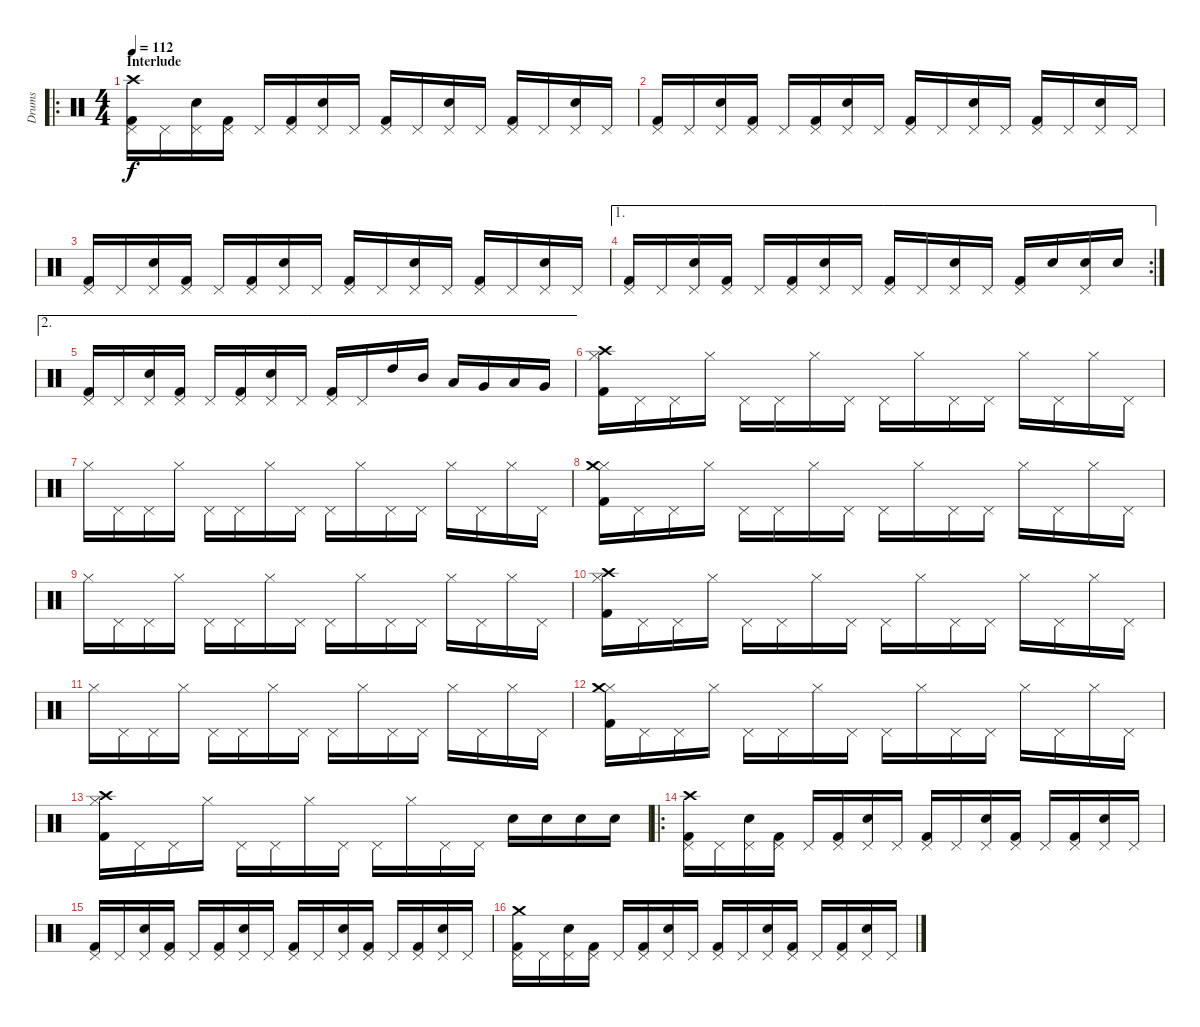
\track ("Drums" "Drums") {instrument percussion}
\staff {score}
\articulation defaults
\ro
\ts (4 4)
\section ("" "Interlude")
\tempo 112
\clef neutral
\ks c
("Kick (hit) 2" "Pedal Hi-Hat (hit)" "Crash high (hit)").16{dy f} "Pedal Hi-Hat (hit)".16 ("Snare (hit) 2" "Pedal Hi-Hat (hit)").16 ("Kick (hit) 2" "Pedal Hi-Hat (hit)").16 "Pedal Hi-Hat (hit)".16 ("Kick (hit) 2" "Pedal Hi-Hat (hit)").16 ("Snare (hit) 2" "Pedal Hi-Hat (hit)").16 "Pedal Hi-Hat (hit)".16 ("Kick (hit) 2" "Pedal Hi-Hat (hit)").16 "Pedal Hi-Hat (hit)".16 ("Snare (hit) 2" "Pedal Hi-Hat (hit)").16 "Pedal Hi-Hat (hit)".16 ("Kick (hit) 2" "Pedal Hi-Hat (hit)").16 "Pedal Hi-Hat (hit)".16 ("Snare (hit) 2" "Pedal Hi-Hat (hit)").16 "Pedal Hi-Hat (hit)".16 |
("Kick (hit) 2" "Pedal Hi-Hat (hit)").16 "Pedal Hi-Hat (hit)".16 ("Snare (hit) 2" "Pedal Hi-Hat (hit)").16 ("Kick (hit) 2" "Pedal Hi-Hat (hit)").16 "Pedal Hi-Hat (hit)".16 ("Kick (hit) 2" "Pedal Hi-Hat (hit)").16 ("Snare (hit) 2" "Pedal Hi-Hat (hit)").16 "Pedal Hi-Hat (hit)".16 ("Kick (hit) 2" "Pedal Hi-Hat (hit)").16 "Pedal Hi-Hat (hit)".16 ("Snare (hit) 2" "Pedal Hi-Hat (hit)").16 "Pedal Hi-Hat (hit)".16 ("Kick (hit) 2" "Pedal Hi-Hat (hit)").16 "Pedal Hi-Hat (hit)".16 ("Snare (hit) 2" "Pedal Hi-Hat (hit)").16 "Pedal Hi-Hat (hit)".16 |
("Kick (hit) 2" "Pedal Hi-Hat (hit)").16 "Pedal Hi-Hat (hit)".16 ("Snare (hit) 2" "Pedal Hi-Hat (hit)").16 ("Kick (hit) 2" "Pedal Hi-Hat (hit)").16 "Pedal Hi-Hat (hit)".16 ("Kick (hit) 2" "Pedal Hi-Hat (hit)").16 ("Snare (hit) 2" "Pedal Hi-Hat (hit)").16 "Pedal Hi-Hat (hit)".16 ("Kick (hit) 2" "Pedal Hi-Hat (hit)").16 "Pedal Hi-Hat (hit)".16 ("Snare (hit) 2" "Pedal Hi-Hat (hit)").16 "Pedal Hi-Hat (hit)".16 ("Kick (hit) 2" "Pedal Hi-Hat (hit)").16 "Pedal Hi-Hat (hit)".16 ("Snare (hit) 2" "Pedal Hi-Hat (hit)").16 "Pedal Hi-Hat (hit)".16 |
\ae 1
\rc 2
("Kick (hit) 2" "Pedal Hi-Hat (hit)").16 "Pedal Hi-Hat (hit)".16 ("Snare (hit) 2" "Pedal Hi-Hat (hit)").16 ("Kick (hit) 2" "Pedal Hi-Hat (hit)").16 "Pedal Hi-Hat (hit)".16 ("Kick (hit) 2" "Pedal Hi-Hat (hit)").16 ("Snare (hit) 2" "Pedal Hi-Hat (hit)").16 "Pedal Hi-Hat (hit)".16 ("Kick (hit) 2" "Pedal Hi-Hat (hit)").16 "Pedal Hi-Hat (hit)".16 ("Snare (hit) 2" "Pedal Hi-Hat (hit)").16 "Pedal Hi-Hat (hit)".16 ("Kick (hit) 2" "Pedal Hi-Hat (hit)").16 "Snare (hit) 2".16 ("Snare (hit) 2" "Pedal Hi-Hat (hit)").16 "Snare (hit) 2".16 |
\ae 2
("Kick (hit) 2" "Pedal Hi-Hat (hit)").16 "Pedal Hi-Hat (hit)".16 ("Snare (hit) 2" "Pedal Hi-Hat (hit)").16 ("Kick (hit) 2" "Pedal Hi-Hat (hit)").16 "Pedal Hi-Hat (hit)".16 ("Kick (hit) 2" "Pedal Hi-Hat (hit)").16 ("Snare (hit) 2" "Pedal Hi-Hat (hit)").16 "Pedal Hi-Hat (hit)".16 ("Kick (hit) 2" "Pedal Hi-Hat (hit)").16 "Pedal Hi-Hat (hit)".16 "High Tom (hit)".16 "Mid Tom (hit)".16 "Low Tom (hit)".16 "Very Low Tom (hit)".16 "Low Floor Tom (hit)".16 "Very Low Tom (hit)".16 |
("Kick (hit) 2" "Hi-Hat (closed)" "Crash high (hit)").16 "Pedal Hi-Hat (hit)".16 "Pedal Hi-Hat (hit)".16 "Hi-Hat (closed)".16 "Pedal Hi-Hat (hit)".16 "Pedal Hi-Hat (hit)".16 "Hi-Hat (closed)".16 "Pedal Hi-Hat (hit)".16 "Pedal Hi-Hat (hit)".16 "Hi-Hat (closed)".16 "Pedal Hi-Hat (hit)".16 "Pedal Hi-Hat (hit)".16 "Hi-Hat (closed)".16 "Pedal Hi-Hat (hit)".16 "Hi-Hat (closed)".16 "Pedal Hi-Hat (hit)".16 |
"Hi-Hat (closed)".16 "Pedal Hi-Hat (hit)".16 "Pedal Hi-Hat (hit)".16 "Hi-Hat (closed)".16 "Pedal Hi-Hat (hit)".16 "Pedal Hi-Hat (hit)".16 "Hi-Hat (closed)".16 "Pedal Hi-Hat (hit)".16 "Pedal Hi-Hat (hit)".16 "Hi-Hat (closed)".16 "Pedal Hi-Hat (hit)".16 "Pedal Hi-Hat (hit)".16 "Hi-Hat (closed)".16 "Pedal Hi-Hat (hit)".16 "Hi-Hat (closed)".16 "Pedal Hi-Hat (hit)".16 |
("Kick (hit) 2" "Hi-Hat (closed)" "Crash medium (hit)").16 "Pedal Hi-Hat (hit)".16 "Pedal Hi-Hat (hit)".16 "Hi-Hat (closed)".16 "Pedal Hi-Hat (hit)".16 "Pedal Hi-Hat (hit)".16 "Hi-Hat (closed)".16 "Pedal Hi-Hat (hit)".16 "Pedal Hi-Hat (hit)".16 "Hi-Hat (closed)".16 "Pedal Hi-Hat (hit)".16 "Pedal Hi-Hat (hit)".16 "Hi-Hat (closed)".16 "Pedal Hi-Hat (hit)".16 "Hi-Hat (closed)".16 "Pedal Hi-Hat (hit)".16 |
"Hi-Hat (closed)".16 "Pedal Hi-Hat (hit)".16 "Pedal Hi-Hat (hit)".16 "Hi-Hat (closed)".16 "Pedal Hi-Hat (hit)".16 "Pedal Hi-Hat (hit)".16 "Hi-Hat (closed)".16 "Pedal Hi-Hat (hit)".16 "Pedal Hi-Hat (hit)".16 "Hi-Hat (closed)".16 "Pedal Hi-Hat (hit)".16 "Pedal Hi-Hat (hit)".16 "Hi-Hat (closed)".16 "Pedal Hi-Hat (hit)".16 "Hi-Hat (closed)".16 "Pedal Hi-Hat (hit)".16 |
("Kick (hit) 2" "Hi-Hat (closed)" "Crash high (hit)").16 "Pedal Hi-Hat (hit)".16 "Pedal Hi-Hat (hit)".16 "Hi-Hat (closed)".16 "Pedal Hi-Hat (hit)".16 "Pedal Hi-Hat (hit)".16 "Hi-Hat (closed)".16 "Pedal Hi-Hat (hit)".16 "Pedal Hi-Hat (hit)".16 "Hi-Hat (closed)".16 "Pedal Hi-Hat (hit)".16 "Pedal Hi-Hat (hit)".16 "Hi-Hat (closed)".16 "Pedal Hi-Hat (hit)".16 "Hi-Hat (closed)".16 "Pedal Hi-Hat (hit)".16 |
"Hi-Hat (closed)".16 "Pedal Hi-Hat (hit)".16 "Pedal Hi-Hat (hit)".16 "Hi-Hat (closed)".16 "Pedal Hi-Hat (hit)".16 "Pedal Hi-Hat (hit)".16 "Hi-Hat (closed)".16 "Pedal Hi-Hat (hit)".16 "Pedal Hi-Hat (hit)".16 "Hi-Hat (closed)".16 "Pedal Hi-Hat (hit)".16 "Pedal Hi-Hat (hit)".16 "Hi-Hat (closed)".16 "Pedal Hi-Hat (hit)".16 "Hi-Hat (closed)".16 "Pedal Hi-Hat (hit)".16 |
("Kick (hit) 2" "Hi-Hat (closed)" "Crash medium (hit)").16 "Pedal Hi-Hat (hit)".16 "Pedal Hi-Hat (hit)".16 "Hi-Hat (closed)".16 "Pedal Hi-Hat (hit)".16 "Pedal Hi-Hat (hit)".16 "Hi-Hat (closed)".16 "Pedal Hi-Hat (hit)".16 "Pedal Hi-Hat (hit)".16 "Hi-Hat (closed)".16 "Pedal Hi-Hat (hit)".16 "Pedal Hi-Hat (hit)".16 "Hi-Hat (closed)".16 "Pedal Hi-Hat (hit)".16 "Hi-Hat (closed)".16 "Pedal Hi-Hat (hit)".16 |
("Kick (hit) 2" "Hi-Hat (closed)" "Crash high (hit)").16 "Pedal Hi-Hat (hit)".16 "Pedal Hi-Hat (hit)".16 "Hi-Hat (closed)".16 "Pedal Hi-Hat (hit)".16 "Pedal Hi-Hat (hit)".16 "Hi-Hat (closed)".16 "Pedal Hi-Hat (hit)".16 "Pedal Hi-Hat (hit)".16 "Hi-Hat (closed)".16 "Pedal Hi-Hat (hit)".16 "Pedal Hi-Hat (hit)".16 "Snare (hit) 2".16 "Snare (hit) 2".16 "Snare (hit) 2".16 "Snare (hit) 2".16 |
\ro
("Kick (hit) 2" "Pedal Hi-Hat (hit)" "Crash high (hit)").16 "Pedal Hi-Hat (hit)".16 ("Snare (hit) 2" "Pedal Hi-Hat (hit)").16 ("Kick (hit) 2" "Pedal Hi-Hat (hit)").16 "Pedal Hi-Hat (hit)".16 ("Kick (hit) 2" "Pedal Hi-Hat (hit)").16 ("Snare (hit) 2" "Pedal Hi-Hat (hit)").16 "Pedal Hi-Hat (hit)".16 ("Kick (hit) 2" "Pedal Hi-Hat (hit)").16 "Pedal Hi-Hat (hit)".16 ("Snare (hit) 2" "Pedal Hi-Hat (hit)").16 ("Kick (hit) 2" "Pedal Hi-Hat (hit)").16 "Pedal Hi-Hat (hit)".16 ("Kick (hit) 2" "Pedal Hi-Hat (hit)").16 ("Snare (hit) 2" "Pedal Hi-Hat (hit)").16 "Pedal Hi-Hat (hit)".16 |
("Kick (hit) 2" "Pedal Hi-Hat (hit)").16 "Pedal Hi-Hat (hit)".16 ("Snare (hit) 2" "Pedal Hi-Hat (hit)").16 ("Kick (hit) 2" "Pedal Hi-Hat (hit)").16 "Pedal Hi-Hat (hit)".16 ("Kick (hit) 2" "Pedal Hi-Hat (hit)").16 ("Snare (hit) 2" "Pedal Hi-Hat (hit)").16 "Pedal Hi-Hat (hit)".16 ("Kick (hit) 2" "Pedal Hi-Hat (hit)").16 "Pedal Hi-Hat (hit)".16 ("Snare (hit) 2" "Pedal Hi-Hat (hit)").16 ("Kick (hit) 2" "Pedal Hi-Hat (hit)").16 "Pedal Hi-Hat (hit)".16 ("Kick (hit) 2" "Pedal Hi-Hat (hit)").16 ("Snare (hit) 2" "Pedal Hi-Hat (hit)").16 "Pedal Hi-Hat (hit)".16 |
("Kick (hit) 2" "Pedal Hi-Hat (hit)" "Crash medium (hit)").16 "Pedal Hi-Hat (hit)".16 ("Snare (hit) 2" "Pedal Hi-Hat (hit)").16 ("Kick (hit) 2" "Pedal Hi-Hat (hit)").16 "Pedal Hi-Hat (hit)".16 ("Kick (hit) 2" "Pedal Hi-Hat (hit)").16 ("Snare (hit) 2" "Pedal Hi-Hat (hit)").16 "Pedal Hi-Hat (hit)".16 ("Kick (hit) 2" "Pedal Hi-Hat (hit)").16 "Pedal Hi-Hat (hit)".16 ("Snare (hit) 2" "Pedal Hi-Hat (hit)").16 ("Kick (hit) 2" "Pedal Hi-Hat (hit)").16 "Pedal Hi-Hat (hit)".16 ("Kick (hit) 2" "Pedal Hi-Hat (hit)").16 ("Snare (hit) 2" "Pedal Hi-Hat (hit)").16 "Pedal Hi-Hat (hit)".16
